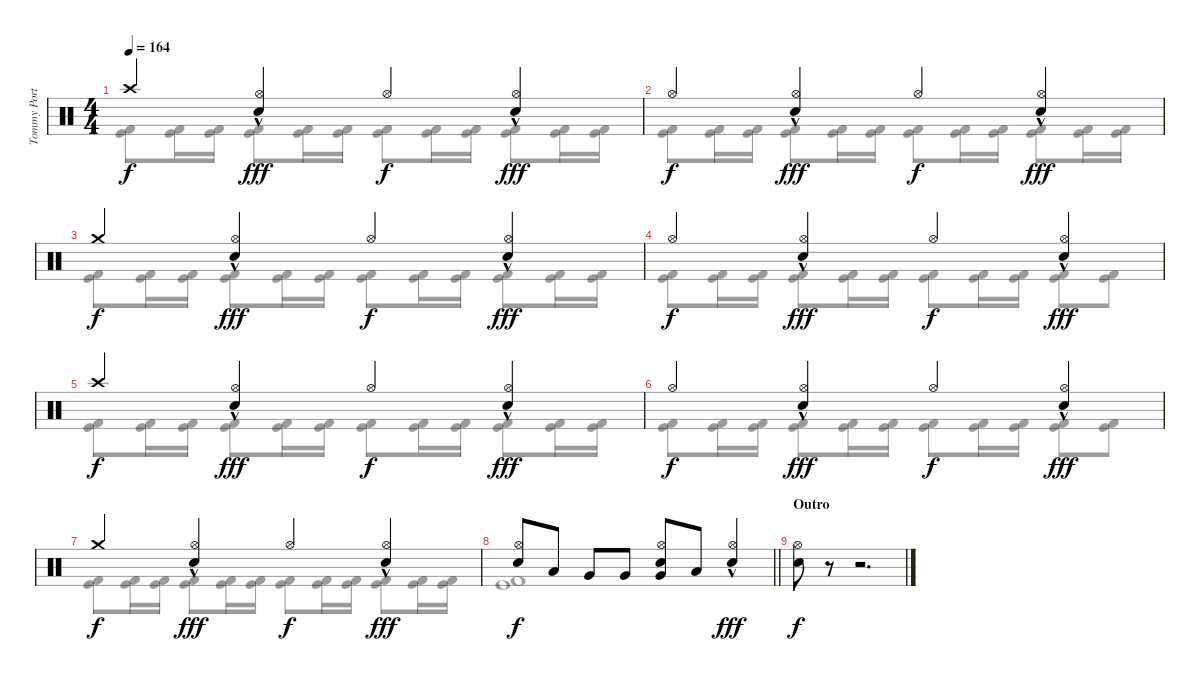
\track ("Tommy Portimo" "Tommy Port") {instrument percussion}
\staff {score}
\articulation defaults
\voice
\ts (4 4)
\tempo 164
\clef neutral
\ks c "Crash high (hit)".4{dy f}
("Snare (hit) 2"{hac} "Hi-Hat (open)").4{dy fff} "Hi-Hat (open)".4{dy f} ("Snare (hit) 2"{hac} "Hi-Hat (open)").4{dy fff} |
"Hi-Hat (open)".4{dy f} ("Snare (hit) 2"{hac} "Hi-Hat (open)").4{dy fff} "Hi-Hat (open)".4{dy f} ("Snare (hit) 2"{hac} "Hi-Hat (open)").4{dy fff} |
"Crash medium (hit)".4{dy f} ("Snare (hit) 2"{hac} "Hi-Hat (open)").4{dy fff} "Hi-Hat (open)".4{dy f} ("Snare (hit) 2"{hac} "Hi-Hat (open)").4{dy fff} |
"Hi-Hat (open)".4{dy f} ("Snare (hit) 2"{hac} "Hi-Hat (open)").4{dy fff} "Hi-Hat (open)".4{dy f} ("Snare (hit) 2"{hac} "Hi-Hat (open)").4{dy fff} |
"Crash high (hit)".4{dy f} ("Snare (hit) 2"{hac} "Hi-Hat (open)").4{dy fff} "Hi-Hat (open)".4{dy f} ("Snare (hit) 2"{hac} "Hi-Hat (open)").4{dy fff} |
"Hi-Hat (open)".4{dy f} ("Snare (hit) 2"{hac} "Hi-Hat (open)").4{dy fff} "Hi-Hat (open)".4{dy f} ("Snare (hit) 2"{hac} "Hi-Hat (open)").4{dy fff} |
"Crash medium (hit)".4{dy f} ("Snare (hit) 2"{hac} "Hi-Hat (open)").4{dy fff} "Hi-Hat (open)".4{dy f} ("Snare (hit) 2"{hac} "Hi-Hat (open)").4{dy fff} |
\barLineRight lightlight
("Snare (hit) 2" "Hi-Hat (open)").8{dy f} "Low Tom (hit)".8 "Very Low Tom (hit)".8 "Very Low Tom (hit)".8 ("Very Low Tom (hit)" "Snare (hit) 2" "Hi-Hat (open)").8 "Low Tom (hit)".8 ("Snare (hit) 2"{hac} "Hi-Hat (open)").4{dy fff} |
\section ("" "Outro")
("Snare (hit) 2" "Hi-Hat (open)").8{dy f} r.8 r.2{d} |
|
|
\voice
\clef neutral
\ottava regular
\simile none
\ks c
("Kick (hit)" "Kick (hit) 2").8{dy f} ("Kick (hit)" "Kick (hit) 2").16 ("Kick (hit)" "Kick (hit) 2").16 ("Kick (hit)" "Kick (hit) 2").8 ("Kick (hit)" "Kick (hit) 2").16 ("Kick (hit)" "Kick (hit) 2").16 ("Kick (hit)" "Kick (hit) 2").8 ("Kick (hit)" "Kick (hit) 2").16 ("Kick (hit)" "Kick (hit) 2").16 ("Kick (hit)" "Kick (hit) 2").8 ("Kick (hit)" "Kick (hit) 2").16 ("Kick (hit)" "Kick (hit) 2").16 |
("Kick (hit)" "Kick (hit) 2").8 ("Kick (hit)" "Kick (hit) 2").16 ("Kick (hit)" "Kick (hit) 2").16 ("Kick (hit)" "Kick (hit) 2").8 ("Kick (hit)" "Kick (hit) 2").16 ("Kick (hit)" "Kick (hit) 2").16 ("Kick (hit)" "Kick (hit) 2").8 ("Kick (hit)" "Kick (hit) 2").16 ("Kick (hit)" "Kick (hit) 2").16 ("Kick (hit)" "Kick (hit) 2").8 ("Kick (hit)" "Kick (hit) 2").16 ("Kick (hit)" "Kick (hit) 2").16 |
("Kick (hit)" "Kick (hit) 2").8 ("Kick (hit)" "Kick (hit) 2").16 ("Kick (hit)" "Kick (hit) 2").16 ("Kick (hit)" "Kick (hit) 2").8 ("Kick (hit)" "Kick (hit) 2").16 ("Kick (hit)" "Kick (hit) 2").16 ("Kick (hit)" "Kick (hit) 2").8 ("Kick (hit)" "Kick (hit) 2").16 ("Kick (hit)" "Kick (hit) 2").16 ("Kick (hit)" "Kick (hit) 2").8 ("Kick (hit)" "Kick (hit) 2").16 ("Kick (hit)" "Kick (hit) 2").16 |
("Kick (hit)" "Kick (hit) 2").8 ("Kick (hit)" "Kick (hit) 2").16 ("Kick (hit)" "Kick (hit) 2").16 ("Kick (hit)" "Kick (hit) 2").8 ("Kick (hit)" "Kick (hit) 2").16 ("Kick (hit)" "Kick (hit) 2").16 ("Kick (hit)" "Kick (hit) 2").8 ("Kick (hit)" "Kick (hit) 2").16 ("Kick (hit)" "Kick (hit) 2").16 ("Kick (hit)" "Kick (hit) 2").8 ("Kick (hit)" "Kick (hit) 2").8 |
("Kick (hit)" "Kick (hit) 2").8 ("Kick (hit)" "Kick (hit) 2").16 ("Kick (hit)" "Kick (hit) 2").16 ("Kick (hit)" "Kick (hit) 2").8 ("Kick (hit)" "Kick (hit) 2").16 ("Kick (hit)" "Kick (hit) 2").16 ("Kick (hit)" "Kick (hit) 2").8 ("Kick (hit)" "Kick (hit) 2").16 ("Kick (hit)" "Kick (hit) 2").16 ("Kick (hit)" "Kick (hit) 2").8 ("Kick (hit)" "Kick (hit) 2").16 ("Kick (hit)" "Kick (hit) 2").16 |
("Kick (hit)" "Kick (hit) 2").8 ("Kick (hit)" "Kick (hit) 2").16 ("Kick (hit)" "Kick (hit) 2").16 ("Kick (hit)" "Kick (hit) 2").8 ("Kick (hit)" "Kick (hit) 2").16 ("Kick (hit)" "Kick (hit) 2").16 ("Kick (hit)" "Kick (hit) 2").8 ("Kick (hit)" "Kick (hit) 2").16 ("Kick (hit)" "Kick (hit) 2").16 ("Kick (hit)" "Kick (hit) 2").8 ("Kick (hit)" "Kick (hit) 2").8 |
("Kick (hit)" "Kick (hit) 2").8 ("Kick (hit)" "Kick (hit) 2").16 ("Kick (hit)" "Kick (hit) 2").16 ("Kick (hit)" "Kick (hit) 2").8 ("Kick (hit)" "Kick (hit) 2").16 ("Kick (hit)" "Kick (hit) 2").16 ("Kick (hit)" "Kick (hit) 2").8 ("Kick (hit)" "Kick (hit) 2").16 ("Kick (hit)" "Kick (hit) 2").16 ("Kick (hit)" "Kick (hit) 2").8 ("Kick (hit)" "Kick (hit) 2").16 ("Kick (hit)" "Kick (hit) 2").16 |
\barLineRight lightlight
("Kick (hit)" "Kick (hit) 2").1 |
|
|
|
